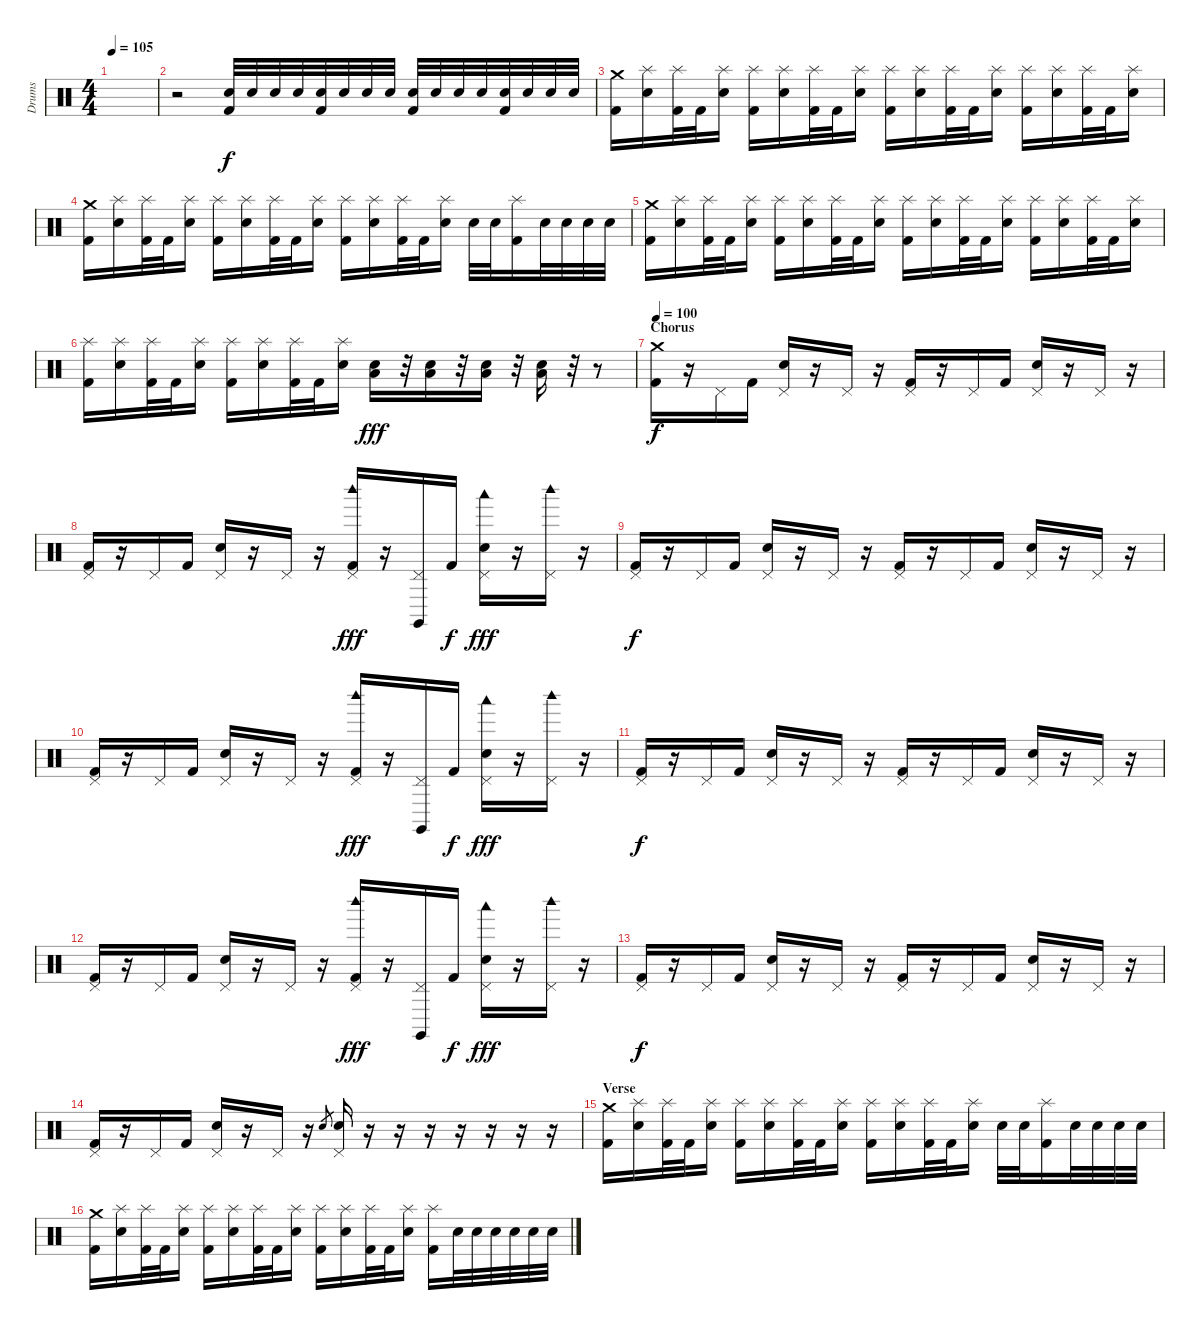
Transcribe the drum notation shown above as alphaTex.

\track ("Drums" "Drums") {instrument percussion}
\staff {score}
\articulation defaults
\ts (4 4)
\tempo 105
\clef neutral
\ks c
|
r.2 ("Electric Snare (hit)" "Kick (hit) 2").32 "Electric Snare (hit)".32 "Electric Snare (hit)".32 "Electric Snare (hit)".32 ("Electric Snare (hit)" "Kick (hit) 2").32 "Electric Snare (hit)".32 "Electric Snare (hit)".32 "Electric Snare (hit)".32 ("Electric Snare (hit)" "Kick (hit) 2").32 "Electric Snare (hit)".32 "Electric Snare (hit)".32 "Electric Snare (hit)".32 ("Electric Snare (hit)" "Kick (hit) 2").32 "Electric Snare (hit)".32 "Electric Snare (hit)".32 "Electric Snare (hit)".32 |
("Crash medium (hit)" "Kick (hit) 2").16 ("Splash (hit)" "Electric Snare (hit)").16 ("Splash (hit)" "Kick (hit) 2").32 "Kick (hit) 2".32 ("Splash (hit)" "Electric Snare (hit)").16 ("Splash (hit)" "Kick (hit) 2").16 ("Splash (hit)" "Electric Snare (hit)").16 ("Splash (hit)" "Kick (hit) 2").32 "Kick (hit) 2".32 ("Splash (hit)" "Electric Snare (hit)").16 ("Splash (hit)" "Kick (hit) 2").16 ("Splash (hit)" "Electric Snare (hit)").16 ("Splash (hit)" "Kick (hit) 2").32 "Kick (hit) 2".32 ("Splash (hit)" "Electric Snare (hit)").16 ("Splash (hit)" "Kick (hit) 2").16 ("Splash (hit)" "Electric Snare (hit)").16 ("Splash (hit)" "Kick (hit) 2").32 "Kick (hit) 2".32 ("Splash (hit)" "Electric Snare (hit)").16 |
("Crash medium (hit)" "Kick (hit) 2").16 ("Splash (hit)" "Electric Snare (hit)").16 ("Splash (hit)" "Kick (hit) 2").32 "Kick (hit) 2".32 ("Splash (hit)" "Electric Snare (hit)").16 ("Splash (hit)" "Kick (hit) 2").16 ("Splash (hit)" "Electric Snare (hit)").16 ("Splash (hit)" "Kick (hit) 2").32 "Kick (hit) 2".32 ("Splash (hit)" "Electric Snare (hit)").16 ("Splash (hit)" "Kick (hit) 2").16 ("Splash (hit)" "Electric Snare (hit)").16 ("Splash (hit)" "Kick (hit) 2").32 "Kick (hit) 2".32 ("Splash (hit)" "Electric Snare (hit)").16 "Electric Snare (hit)".32 "Electric Snare (hit)".32 ("Splash (hit)" "Kick (hit) 2").16 "Electric Snare (hit)".32 "Electric Snare (hit)".32 "Electric Snare (hit)".32 "Electric Snare (hit)".32 |
("Crash medium (hit)" "Kick (hit) 2").16 ("Splash (hit)" "Electric Snare (hit)").16 ("Splash (hit)" "Kick (hit) 2").32 "Kick (hit) 2".32 ("Splash (hit)" "Electric Snare (hit)").16 ("Splash (hit)" "Kick (hit) 2").16 ("Splash (hit)" "Electric Snare (hit)").16 ("Splash (hit)" "Kick (hit) 2").32 "Kick (hit) 2".32 ("Splash (hit)" "Electric Snare (hit)").16 ("Splash (hit)" "Kick (hit) 2").16 ("Splash (hit)" "Electric Snare (hit)").16 ("Splash (hit)" "Kick (hit) 2").32 "Kick (hit) 2".32 ("Splash (hit)" "Electric Snare (hit)").16 ("Splash (hit)" "Kick (hit) 2").16 ("Splash (hit)" "Electric Snare (hit)").16 ("Splash (hit)" "Kick (hit) 2").32 "Kick (hit) 2".32 ("Splash (hit)" "Electric Snare (hit)").16 |
("Splash (hit)" "Kick (hit) 2").16 ("Splash (hit)" "Electric Snare (hit)").16 ("Splash (hit)" "Kick (hit) 2").32 "Kick (hit) 2".32 ("Splash (hit)" "Electric Snare (hit)").16 ("Splash (hit)" "Kick (hit) 2").16 ("Splash (hit)" "Electric Snare (hit)").16 ("Splash (hit)" "Kick (hit) 2").32 "Kick (hit) 2".32 ("Splash (hit)" "Electric Snare (hit)").16 ("Electric Snare (hit)" "Low Floor Tom (hit)").16{dy fff} r.32 ("Electric Snare (hit)" "Low Floor Tom (hit)").16 r.32 ("Electric Snare (hit)" "Low Floor Tom (hit)").16 r.32 ("Electric Snare (hit)" "Low Floor Tom (hit)").16 r.32 r.8 |
\section ("" "Chorus")
\tempo 100
("Crash medium (hit)" "Kick (hit) 2").16{dy f} r.16 "Pedal Hi-Hat (hit)".16 "Kick (hit) 2".16 ("Pedal Hi-Hat (hit)" "Electric Snare (hit)").16 r.16 "Pedal Hi-Hat (hit)".16 r.16 ("Pedal Hi-Hat (hit)" "Kick (hit) 2").16 r.16 "Pedal Hi-Hat (hit)".16 "Kick (hit) 2".16 ("Pedal Hi-Hat (hit)" "Electric Snare (hit)").16 r.16 "Pedal Hi-Hat (hit)".16 r.16 |
("Pedal Hi-Hat (hit)" "Kick (hit) 2").16 r.16 "Pedal Hi-Hat (hit)".16 "Kick (hit) 2".16 ("Pedal Hi-Hat (hit)" "Electric Snare (hit)").16 r.16 "Pedal Hi-Hat (hit)".16 r.16 ("Pedal Hi-Hat (hit)" "Woodblock high (hit)" "Kick (hit) 2").16{dy fff} r.16 ("Pedal Hi-Hat (hit)" "Claves (hit)").16 "Kick (hit) 2".16{dy f} ("Pedal Hi-Hat (hit)" "Woodblock low (hit)" "Electric Snare (hit)").16{dy fff} r.16 ("Pedal Hi-Hat (hit)" "Woodblock high (hit)").16 r.16 |
("Pedal Hi-Hat (hit)" "Kick (hit) 2").16{dy f} r.16 "Pedal Hi-Hat (hit)".16 "Kick (hit) 2".16 ("Pedal Hi-Hat (hit)" "Electric Snare (hit)").16 r.16 "Pedal Hi-Hat (hit)".16 r.16 ("Pedal Hi-Hat (hit)" "Kick (hit) 2").16 r.16 "Pedal Hi-Hat (hit)".16 "Kick (hit) 2".16 ("Pedal Hi-Hat (hit)" "Electric Snare (hit)").16 r.16 "Pedal Hi-Hat (hit)".16 r.16 |
("Pedal Hi-Hat (hit)" "Kick (hit) 2").16 r.16 "Pedal Hi-Hat (hit)".16 "Kick (hit) 2".16 ("Pedal Hi-Hat (hit)" "Electric Snare (hit)").16 r.16 "Pedal Hi-Hat (hit)".16 r.16 ("Pedal Hi-Hat (hit)" "Woodblock high (hit)" "Kick (hit) 2").16{dy fff} r.16 ("Pedal Hi-Hat (hit)" "Claves (hit)").16 "Kick (hit) 2".16{dy f} ("Pedal Hi-Hat (hit)" "Woodblock low (hit)" "Electric Snare (hit)").16{dy fff} r.16 ("Pedal Hi-Hat (hit)" "Woodblock high (hit)").16 r.16 |
("Pedal Hi-Hat (hit)" "Kick (hit) 2").16{dy f} r.16 "Pedal Hi-Hat (hit)".16 "Kick (hit) 2".16 ("Pedal Hi-Hat (hit)" "Electric Snare (hit)").16 r.16 "Pedal Hi-Hat (hit)".16 r.16 ("Pedal Hi-Hat (hit)" "Kick (hit) 2").16 r.16 "Pedal Hi-Hat (hit)".16 "Kick (hit) 2".16 ("Pedal Hi-Hat (hit)" "Electric Snare (hit)").16 r.16 "Pedal Hi-Hat (hit)".16 r.16 |
("Pedal Hi-Hat (hit)" "Kick (hit) 2").16 r.16 "Pedal Hi-Hat (hit)".16 "Kick (hit) 2".16 ("Pedal Hi-Hat (hit)" "Electric Snare (hit)").16 r.16 "Pedal Hi-Hat (hit)".16 r.16 ("Pedal Hi-Hat (hit)" "Woodblock high (hit)" "Kick (hit) 2").16{dy fff} r.16 ("Pedal Hi-Hat (hit)" "Claves (hit)").16 "Kick (hit) 2".16{dy f} ("Pedal Hi-Hat (hit)" "Woodblock low (hit)" "Electric Snare (hit)").16{dy fff} r.16 ("Pedal Hi-Hat (hit)" "Woodblock high (hit)").16 r.16 |
("Pedal Hi-Hat (hit)" "Kick (hit) 2").16{dy f} r.16 "Pedal Hi-Hat (hit)".16 "Kick (hit) 2".16 ("Pedal Hi-Hat (hit)" "Electric Snare (hit)").16 r.16 "Pedal Hi-Hat (hit)".16 r.16 ("Pedal Hi-Hat (hit)" "Kick (hit) 2").16 r.16 "Pedal Hi-Hat (hit)".16 "Kick (hit) 2".16 ("Pedal Hi-Hat (hit)" "Electric Snare (hit)").16 r.16 "Pedal Hi-Hat (hit)".16 r.16 |
("Pedal Hi-Hat (hit)" "Kick (hit) 2").16 r.16 "Pedal Hi-Hat (hit)".16 "Kick (hit) 2".16 ("Pedal Hi-Hat (hit)" "Electric Snare (hit)").16 r.16 "Pedal Hi-Hat (hit)".16 r.16 "Electric Snare (hit)".8{gr} ("Pedal Hi-Hat (hit)" "Electric Snare (hit)").16 r.16 r.16 r.16 r.16 r.16 r.16 r.16 |
\section ("" "Verse")
("Crash medium (hit)" "Kick (hit) 2").16 ("Splash (hit)" "Electric Snare (hit)").16 ("Splash (hit)" "Kick (hit) 2").32 "Kick (hit) 2".32 ("Splash (hit)" "Electric Snare (hit)").16 ("Splash (hit)" "Kick (hit) 2").16 ("Splash (hit)" "Electric Snare (hit)").16 ("Splash (hit)" "Kick (hit) 2").32 "Kick (hit) 2".32 ("Splash (hit)" "Electric Snare (hit)").16 ("Splash (hit)" "Kick (hit) 2").16 ("Splash (hit)" "Electric Snare (hit)").16 ("Splash (hit)" "Kick (hit) 2").32 "Kick (hit) 2".32 ("Splash (hit)" "Electric Snare (hit)").16 "Electric Snare (hit)".32 "Electric Snare (hit)".32 ("Splash (hit)" "Kick (hit) 2").16 "Electric Snare (hit)".32 "Electric Snare (hit)".32 "Electric Snare (hit)".32 "Electric Snare (hit)".32 |
("Crash medium (hit)" "Kick (hit) 2").16 ("Splash (hit)" "Electric Snare (hit)").16 ("Splash (hit)" "Kick (hit) 2").32 "Kick (hit) 2".32 ("Splash (hit)" "Electric Snare (hit)").16 ("Splash (hit)" "Kick (hit) 2").16 ("Splash (hit)" "Electric Snare (hit)").16 ("Splash (hit)" "Kick (hit) 2").32 "Kick (hit) 2".32 ("Splash (hit)" "Electric Snare (hit)").16 ("Splash (hit)" "Kick (hit) 2").16 ("Splash (hit)" "Electric Snare (hit)").16 ("Splash (hit)" "Kick (hit) 2").32 "Kick (hit) 2".32 ("Splash (hit)" "Electric Snare (hit)").16 ("Splash (hit)" "Kick (hit) 2").16 "Electric Snare (hit)".32 "Electric Snare (hit)".32 "Electric Snare (hit)".32 "Electric Snare (hit)".32 "Electric Snare (hit)".32 "Electric Snare (hit)".32
